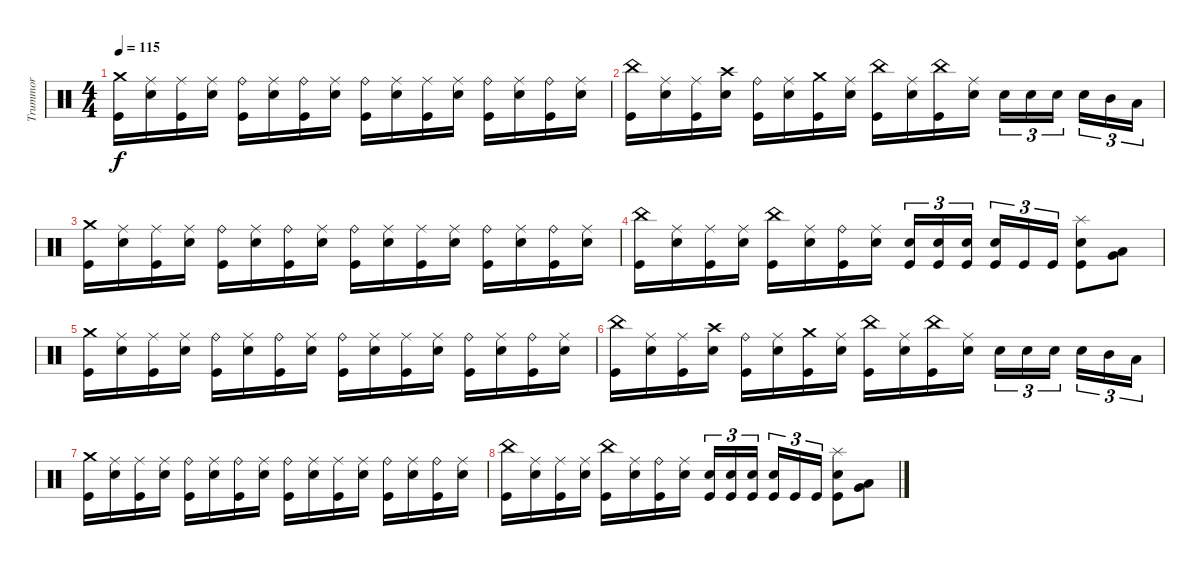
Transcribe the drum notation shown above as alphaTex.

\track ("Trummor" "Trummor") {instrument percussion}
\staff {score}
\articulation defaults
\ts (4 4)
\tempo 115
\clef neutral
\ks c
("Crash medium (hit)" "Kick (hit)").16{dy f} ("Ride (middle)" "Electric Snare (hit)").16 ("Ride (middle)" "Kick (hit)").16 ("Ride (middle)" "Electric Snare (hit)").16 ("Ride (bell)" "Kick (hit)").16 ("Ride (middle)" "Electric Snare (hit)").16 ("Ride (bell)" "Kick (hit)").16 ("Ride (middle)" "Electric Snare (hit)").16 ("Ride (bell)" "Kick (hit)").16 ("Ride (middle)" "Electric Snare (hit)").16 ("Ride (middle)" "Kick (hit)").16 ("Ride (middle)" "Electric Snare (hit)").16 ("Ride (bell)" "Kick (hit)").16 ("Ride (middle)" "Electric Snare (hit)").16 ("Ride (bell)" "Kick (hit)").16 ("Ride (middle)" "Electric Snare (hit)").16 |
("China (hit)" "Kick (hit)").16 ("Ride (middle)" "Electric Snare (hit)").16 ("Ride (middle)" "Kick (hit)").16 ("Crash high (hit)" "Electric Snare (hit)").16 ("Ride (bell)" "Kick (hit)").16 ("Ride (middle)" "Electric Snare (hit)").16 ("Crash medium (hit)" "Kick (hit)").16 ("Ride (middle)" "Electric Snare (hit)").16 ("China (hit)" "Kick (hit)").16 ("Ride (middle)" "Electric Snare (hit)").16 ("China (hit)" "Kick (hit)").16 ("Ride (middle)" "Electric Snare (hit)").16 "Electric Snare (hit)".16{tu (3 2)} "Electric Snare (hit)".16{tu (3 2)} "Electric Snare (hit)".16{tu (3 2) beam splitsecondary} "Electric Snare (hit)".16{tu (3 2)} "Mid Tom (hit)".16{tu (3 2)} "Low Tom (hit)".16{tu (3 2)} |
("Crash medium (hit)" "Kick (hit)").16 ("Ride (middle)" "Electric Snare (hit)").16 ("Ride (middle)" "Kick (hit)").16 ("Ride (middle)" "Electric Snare (hit)").16 ("Ride (bell)" "Kick (hit)").16 ("Ride (middle)" "Electric Snare (hit)").16 ("Ride (bell)" "Kick (hit)").16 ("Ride (middle)" "Electric Snare (hit)").16 ("Ride (bell)" "Kick (hit)").16 ("Ride (middle)" "Electric Snare (hit)").16 ("Ride (middle)" "Kick (hit)").16 ("Ride (middle)" "Electric Snare (hit)").16 ("Ride (bell)" "Kick (hit)").16 ("Ride (middle)" "Electric Snare (hit)").16 ("Ride (bell)" "Kick (hit)").16 ("Ride (middle)" "Electric Snare (hit)").16 |
("China (hit)" "Kick (hit)").16 ("Ride (middle)" "Electric Snare (hit)").16 ("Ride (middle)" "Kick (hit)").16 ("Ride (middle)" "Electric Snare (hit)").16 ("China (hit)" "Kick (hit)").16 ("Ride (middle)" "Electric Snare (hit)").16 ("Ride (bell)" "Kick (hit)").16 ("Ride (middle)" "Electric Snare (hit)").16 ("Electric Snare (hit)" "Kick (hit)").16{tu (3 2)} ("Electric Snare (hit)" "Kick (hit)").16{tu (3 2)} ("Electric Snare (hit)" "Kick (hit)").16{tu (3 2) beam splitsecondary} ("Electric Snare (hit)" "Kick (hit)").16{tu (3 2)} "Kick (hit)".16{tu (3 2)} "Kick (hit)".16{tu (3 2)} ("Splash (hit)" "Electric Snare (hit)" "Kick (hit)").8 ("Low Tom (hit)" "Very Low Tom (hit)").8 |
("Crash medium (hit)" "Kick (hit)").16 ("Ride (middle)" "Electric Snare (hit)").16 ("Ride (middle)" "Kick (hit)").16 ("Ride (middle)" "Electric Snare (hit)").16 ("Ride (bell)" "Kick (hit)").16 ("Ride (middle)" "Electric Snare (hit)").16 ("Ride (bell)" "Kick (hit)").16 ("Ride (middle)" "Electric Snare (hit)").16 ("Ride (bell)" "Kick (hit)").16 ("Ride (middle)" "Electric Snare (hit)").16 ("Ride (middle)" "Kick (hit)").16 ("Ride (middle)" "Electric Snare (hit)").16 ("Ride (bell)" "Kick (hit)").16 ("Ride (middle)" "Electric Snare (hit)").16 ("Ride (bell)" "Kick (hit)").16 ("Ride (middle)" "Electric Snare (hit)").16 |
("China (hit)" "Kick (hit)").16 ("Ride (middle)" "Electric Snare (hit)").16 ("Ride (middle)" "Kick (hit)").16 ("Crash high (hit)" "Electric Snare (hit)").16 ("Ride (bell)" "Kick (hit)").16 ("Ride (middle)" "Electric Snare (hit)").16 ("Crash medium (hit)" "Kick (hit)").16 ("Ride (middle)" "Electric Snare (hit)").16 ("China (hit)" "Kick (hit)").16 ("Ride (middle)" "Electric Snare (hit)").16 ("China (hit)" "Kick (hit)").16 ("Ride (middle)" "Electric Snare (hit)").16 "Electric Snare (hit)".16{tu (3 2)} "Electric Snare (hit)".16{tu (3 2)} "Electric Snare (hit)".16{tu (3 2) beam splitsecondary} "Electric Snare (hit)".16{tu (3 2)} "Mid Tom (hit)".16{tu (3 2)} "Low Tom (hit)".16{tu (3 2)} |
("Crash medium (hit)" "Kick (hit)").16 ("Ride (middle)" "Electric Snare (hit)").16 ("Ride (middle)" "Kick (hit)").16 ("Ride (middle)" "Electric Snare (hit)").16 ("Ride (bell)" "Kick (hit)").16 ("Ride (middle)" "Electric Snare (hit)").16 ("Ride (bell)" "Kick (hit)").16 ("Ride (middle)" "Electric Snare (hit)").16 ("Ride (bell)" "Kick (hit)").16 ("Ride (middle)" "Electric Snare (hit)").16 ("Ride (middle)" "Kick (hit)").16 ("Ride (middle)" "Electric Snare (hit)").16 ("Ride (bell)" "Kick (hit)").16 ("Ride (middle)" "Electric Snare (hit)").16 ("Ride (bell)" "Kick (hit)").16 ("Ride (middle)" "Electric Snare (hit)").16 |
("China (hit)" "Kick (hit)").16 ("Ride (middle)" "Electric Snare (hit)").16 ("Ride (middle)" "Kick (hit)").16 ("Ride (middle)" "Electric Snare (hit)").16 ("China (hit)" "Kick (hit)").16 ("Ride (middle)" "Electric Snare (hit)").16 ("Ride (bell)" "Kick (hit)").16 ("Ride (middle)" "Electric Snare (hit)").16 ("Electric Snare (hit)" "Kick (hit)").16{tu (3 2)} ("Electric Snare (hit)" "Kick (hit)").16{tu (3 2)} ("Electric Snare (hit)" "Kick (hit)").16{tu (3 2) beam splitsecondary} ("Electric Snare (hit)" "Kick (hit)").16{tu (3 2)} "Kick (hit)".16{tu (3 2)} "Kick (hit)".16{tu (3 2)} ("Splash (hit)" "Electric Snare (hit)" "Kick (hit)").8 ("Low Tom (hit)" "Very Low Tom (hit)").8
